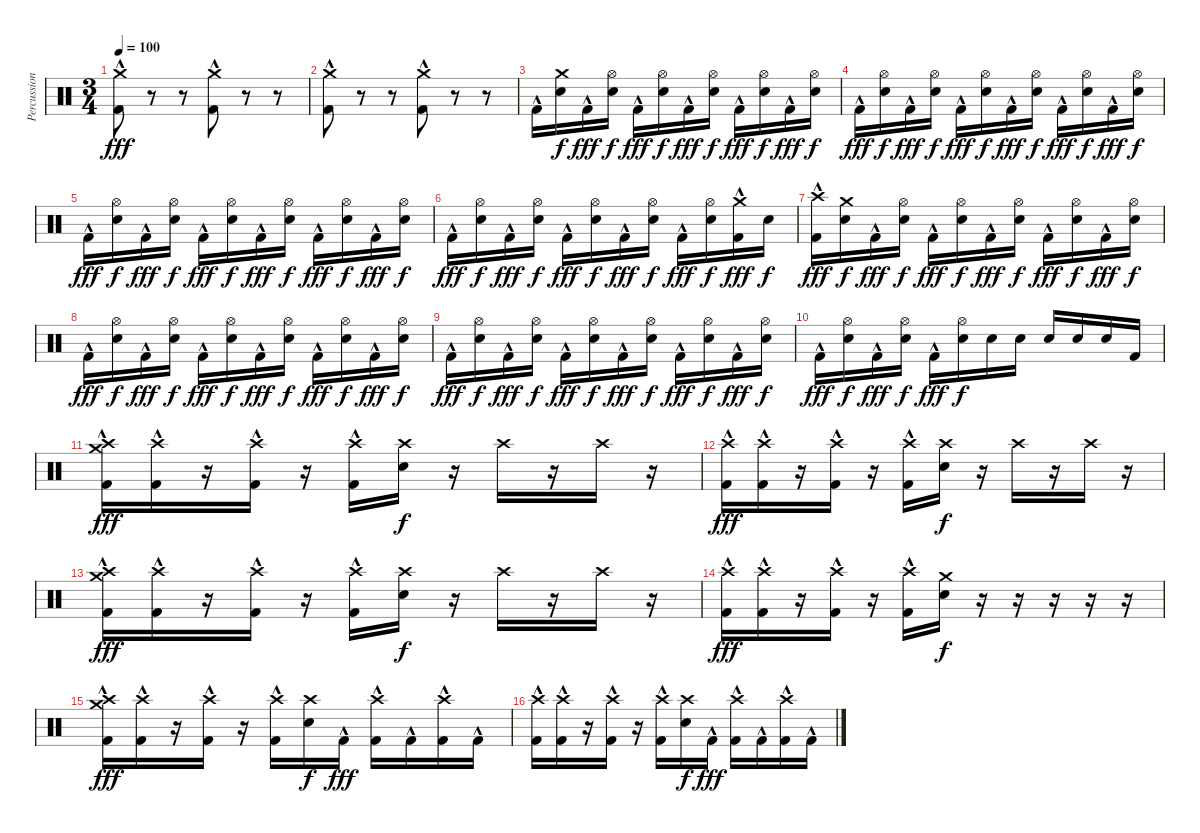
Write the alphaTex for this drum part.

\track ("Percussion" "Percussion") {instrument percussion}
\staff {score}
\articulation defaults
\ts (3 4)
\tempo 100
\clef neutral
\ks c
("Kick (hit) 2"{hac} "Crash medium (hit)").8{dy fff} r.8{volume 0} r.8 ("Kick (hit) 2"{hac} "Crash medium (hit)").8{volume 8} r.8{volume 0} r.8 |
("Kick (hit) 2"{hac} "Crash medium (hit)").8{volume 8} r.8{volume 0} r.8 ("Kick (hit) 2"{hac} "Crash medium (hit)").8{volume 8} r.8 r.8 |
"Kick (hit) 2"{hac}.16 ("Electric Snare (hit)" "Crash medium (hit)").16{dy f} "Kick (hit) 2"{hac}.16{dy fff} ("Electric Snare (hit)" "Hi-Hat (open)").16{dy f} "Kick (hit) 2"{hac}.16{dy fff} ("Electric Snare (hit)" "Hi-Hat (open)").16{dy f} "Kick (hit) 2"{hac}.16{dy fff} ("Electric Snare (hit)" "Hi-Hat (open)").16{dy f} "Kick (hit) 2"{hac}.16{dy fff} ("Electric Snare (hit)" "Hi-Hat (open)").16{dy f} "Kick (hit) 2"{hac}.16{dy fff} ("Electric Snare (hit)" "Hi-Hat (open)").16{dy f} |
"Kick (hit) 2"{hac}.16{dy fff} ("Electric Snare (hit)" "Hi-Hat (open)").16{dy f} "Kick (hit) 2"{hac}.16{dy fff} ("Electric Snare (hit)" "Hi-Hat (open)").16{dy f} "Kick (hit) 2"{hac}.16{dy fff} ("Electric Snare (hit)" "Hi-Hat (open)").16{dy f} "Kick (hit) 2"{hac}.16{dy fff} ("Electric Snare (hit)" "Hi-Hat (open)").16{dy f} "Kick (hit) 2"{hac}.16{dy fff} ("Electric Snare (hit)" "Hi-Hat (open)").16{dy f} "Kick (hit) 2"{hac}.16{dy fff} ("Electric Snare (hit)" "Hi-Hat (open)").16{dy f} |
"Kick (hit) 2"{hac}.16{dy fff} ("Electric Snare (hit)" "Hi-Hat (open)").16{dy f} "Kick (hit) 2"{hac}.16{dy fff} ("Electric Snare (hit)" "Hi-Hat (open)").16{dy f} "Kick (hit) 2"{hac}.16{dy fff} ("Electric Snare (hit)" "Hi-Hat (open)").16{dy f} "Kick (hit) 2"{hac}.16{dy fff} ("Electric Snare (hit)" "Hi-Hat (open)").16{dy f} "Kick (hit) 2"{hac}.16{dy fff} ("Electric Snare (hit)" "Hi-Hat (open)").16{dy f} "Kick (hit) 2"{hac}.16{dy fff} ("Electric Snare (hit)" "Hi-Hat (open)").16{dy f} |
"Kick (hit) 2"{hac}.16{dy fff} ("Electric Snare (hit)" "Hi-Hat (open)").16{dy f} "Kick (hit) 2"{hac}.16{dy fff} ("Electric Snare (hit)" "Hi-Hat (open)").16{dy f} "Kick (hit) 2"{hac}.16{dy fff} ("Electric Snare (hit)" "Hi-Hat (open)").16{dy f} "Kick (hit) 2"{hac}.16{dy fff} ("Electric Snare (hit)" "Hi-Hat (open)").16{dy f} "Kick (hit) 2"{hac}.16{dy fff} ("Electric Snare (hit)" "Hi-Hat (open)").16{dy f} ("Kick (hit) 2"{hac} "Crash medium (hit)").16{dy fff} "Electric Snare (hit)".16{dy f} |
("Kick (hit) 2"{hac} "Crash high (hit)").16{dy fff} ("Electric Snare (hit)" "Crash medium (hit)").16{dy f} "Kick (hit) 2"{hac}.16{dy fff} ("Electric Snare (hit)" "Hi-Hat (open)").16{dy f} "Kick (hit) 2"{hac}.16{dy fff} ("Electric Snare (hit)" "Hi-Hat (open)").16{dy f} "Kick (hit) 2"{hac}.16{dy fff} ("Electric Snare (hit)" "Hi-Hat (open)").16{dy f} "Kick (hit) 2"{hac}.16{dy fff} ("Electric Snare (hit)" "Hi-Hat (open)").16{dy f} "Kick (hit) 2"{hac}.16{dy fff} ("Electric Snare (hit)" "Hi-Hat (open)").16{dy f} |
"Kick (hit) 2"{hac}.16{dy fff} ("Electric Snare (hit)" "Hi-Hat (open)").16{dy f} "Kick (hit) 2"{hac}.16{dy fff} ("Electric Snare (hit)" "Hi-Hat (open)").16{dy f} "Kick (hit) 2"{hac}.16{dy fff} ("Electric Snare (hit)" "Hi-Hat (open)").16{dy f} "Kick (hit) 2"{hac}.16{dy fff} ("Electric Snare (hit)" "Hi-Hat (open)").16{dy f} "Kick (hit) 2"{hac}.16{dy fff} ("Electric Snare (hit)" "Hi-Hat (open)").16{dy f} "Kick (hit) 2"{hac}.16{dy fff} ("Electric Snare (hit)" "Hi-Hat (open)").16{dy f} |
"Kick (hit) 2"{hac}.16{dy fff} ("Electric Snare (hit)" "Hi-Hat (open)").16{dy f} "Kick (hit) 2"{hac}.16{dy fff} ("Electric Snare (hit)" "Hi-Hat (open)").16{dy f} "Kick (hit) 2"{hac}.16{dy fff} ("Electric Snare (hit)" "Hi-Hat (open)").16{dy f} "Kick (hit) 2"{hac}.16{dy fff} ("Electric Snare (hit)" "Hi-Hat (open)").16{dy f} "Kick (hit) 2"{hac}.16{dy fff} ("Electric Snare (hit)" "Hi-Hat (open)").16{dy f} "Kick (hit) 2"{hac}.16{dy fff} ("Electric Snare (hit)" "Hi-Hat (open)").16{dy f} |
"Kick (hit) 2"{hac}.16{dy fff} ("Electric Snare (hit)" "Hi-Hat (open)").16{dy f} "Kick (hit) 2"{hac}.16{dy fff} ("Electric Snare (hit)" "Hi-Hat (open)").16{dy f} "Kick (hit) 2"{hac}.16{dy fff} ("Electric Snare (hit)" "Hi-Hat (open)").16{dy f} "Electric Snare (hit)".16 "Electric Snare (hit)".16 "Electric Snare (hit)".16 "Electric Snare (hit)".16 "Electric Snare (hit)".16 "Kick (hit) 2".16 |
("Kick (hit) 2"{hac} "Crash medium (hit)" "Crash high (hit)").16{dy fff} ("Kick (hit) 2"{hac} "Crash high (hit)").16 r.16 ("Kick (hit) 2"{hac} "Crash high (hit)").16 r.16 ("Kick (hit) 2"{hac} "Crash high (hit)").16 ("Electric Snare (hit)" "Crash high (hit)").16{dy f} r.16 "Crash high (hit)".16 r.16 "Crash high (hit)".16 r.16 |
("Kick (hit) 2"{hac} "Crash high (hit)").16{dy fff} ("Kick (hit) 2"{hac} "Crash high (hit)").16 r.16 ("Kick (hit) 2"{hac} "Crash high (hit)").16 r.16 ("Kick (hit) 2"{hac} "Crash high (hit)").16 ("Electric Snare (hit)" "Crash high (hit)").16{dy f} r.16 "Crash high (hit)".16 r.16 "Crash high (hit)".16 r.16 |
("Kick (hit) 2"{hac} "Crash medium (hit)" "Crash high (hit)").16{dy fff} ("Kick (hit) 2"{hac} "Crash high (hit)").16 r.16 ("Kick (hit) 2"{hac} "Crash high (hit)").16 r.16 ("Kick (hit) 2"{hac} "Crash high (hit)").16 ("Electric Snare (hit)" "Crash high (hit)").16{dy f} r.16 "Crash high (hit)".16 r.16 "Crash high (hit)".16 r.16 |
("Kick (hit) 2"{hac} "Crash high (hit)").16{dy fff} ("Kick (hit) 2"{hac} "Crash high (hit)").16 r.16 ("Kick (hit) 2"{hac} "Crash high (hit)").16 r.16 ("Kick (hit) 2"{hac} "Crash high (hit)").16 ("Electric Snare (hit)" "Crash medium (hit)").16{dy f} r.16 r.16{volume 0} r.16 r.16 r.16 |
("Kick (hit) 2"{hac} "Crash medium (hit)" "Crash high (hit)").16{dy fff volume 8} ("Kick (hit) 2"{hac} "Crash high (hit)").16 r.16 ("Kick (hit) 2"{hac} "Crash high (hit)").16 r.16 ("Kick (hit) 2"{hac} "Crash high (hit)").16 ("Electric Snare (hit)" "Crash high (hit)").16{dy f} "Kick (hit) 2"{hac}.16{dy fff} ("Kick (hit) 2"{hac} "Crash high (hit)").16 "Kick (hit) 2"{hac}.16 ("Kick (hit) 2"{hac} "Crash high (hit)").16 "Kick (hit) 2"{hac}.16 |
("Kick (hit) 2"{hac} "Crash high (hit)").16 ("Kick (hit) 2"{hac} "Crash high (hit)").16 r.16 ("Kick (hit) 2"{hac} "Crash high (hit)").16 r.16 ("Kick (hit) 2"{hac} "Crash high (hit)").16 ("Electric Snare (hit)" "Crash high (hit)").16{dy f} "Kick (hit) 2"{hac}.16{dy fff} ("Kick (hit) 2"{hac} "Crash high (hit)").16 "Kick (hit) 2"{hac}.16 ("Kick (hit) 2"{hac} "Crash high (hit)").16 "Kick (hit) 2"{hac}.16
